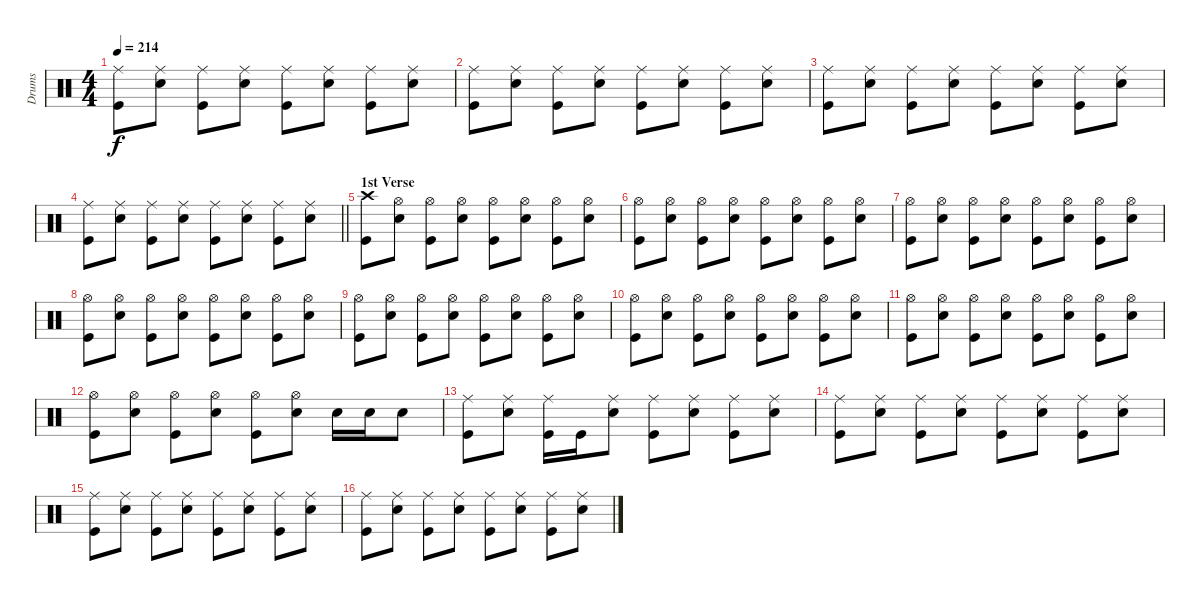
\track ("Drums" "Drums") {instrument percussion}
\staff {score}
\articulation defaults
\ts (4 4)
\tempo 214
\clef neutral
\ks c
("Ride (middle)" "Kick (hit)").8{dy f} ("Ride (middle)" "Snare (hit) 2").8 ("Ride (middle)" "Kick (hit)").8 ("Ride (middle)" "Snare (hit) 2").8 ("Ride (middle)" "Kick (hit)").8 ("Ride (middle)" "Snare (hit) 2").8 ("Ride (middle)" "Kick (hit)").8 ("Ride (middle)" "Snare (hit) 2").8 |
("Ride (middle)" "Kick (hit)").8 ("Ride (middle)" "Snare (hit) 2").8 ("Ride (middle)" "Kick (hit)").8 ("Ride (middle)" "Snare (hit) 2").8 ("Ride (middle)" "Kick (hit)").8 ("Ride (middle)" "Snare (hit) 2").8 ("Ride (middle)" "Kick (hit)").8 ("Ride (middle)" "Snare (hit) 2").8 |
("Ride (middle)" "Kick (hit)").8 ("Ride (middle)" "Snare (hit) 2").8 ("Ride (middle)" "Kick (hit)").8 ("Ride (middle)" "Snare (hit) 2").8 ("Ride (middle)" "Kick (hit)").8 ("Ride (middle)" "Snare (hit) 2").8 ("Ride (middle)" "Kick (hit)").8 ("Ride (middle)" "Snare (hit) 2").8 |
\barLineRight lightlight
("Ride (middle)" "Kick (hit)").8 ("Ride (middle)" "Snare (hit) 2").8 ("Ride (middle)" "Kick (hit)").8 ("Ride (middle)" "Snare (hit) 2").8 ("Ride (middle)" "Kick (hit)").8 ("Ride (middle)" "Snare (hit) 2").8 ("Ride (middle)" "Kick (hit)").8 ("Ride (middle)" "Snare (hit) 2").8 |
\section ("" "1st Verse")
("Crash high (hit)" "Kick (hit)").8 ("Hi-Hat (open)" "Snare (hit) 2").8 ("Hi-Hat (open)" "Kick (hit)").8 ("Hi-Hat (open)" "Snare (hit) 2").8 ("Hi-Hat (open)" "Kick (hit)").8 ("Hi-Hat (open)" "Snare (hit) 2").8 ("Hi-Hat (open)" "Kick (hit)").8 ("Hi-Hat (open)" "Snare (hit) 2").8 |
("Hi-Hat (open)" "Kick (hit)").8 ("Hi-Hat (open)" "Snare (hit) 2").8 ("Hi-Hat (open)" "Kick (hit)").8 ("Hi-Hat (open)" "Snare (hit) 2").8 ("Hi-Hat (open)" "Kick (hit)").8 ("Hi-Hat (open)" "Snare (hit) 2").8 ("Hi-Hat (open)" "Kick (hit)").8 ("Hi-Hat (open)" "Snare (hit) 2").8 |
("Hi-Hat (open)" "Kick (hit)").8 ("Hi-Hat (open)" "Snare (hit) 2").8 ("Hi-Hat (open)" "Kick (hit)").8 ("Hi-Hat (open)" "Snare (hit) 2").8 ("Hi-Hat (open)" "Kick (hit)").8 ("Hi-Hat (open)" "Snare (hit) 2").8 ("Hi-Hat (open)" "Kick (hit)").8 ("Hi-Hat (open)" "Snare (hit) 2").8 |
("Hi-Hat (open)" "Kick (hit)").8 ("Hi-Hat (open)" "Snare (hit) 2").8 ("Hi-Hat (open)" "Kick (hit)").8 ("Hi-Hat (open)" "Snare (hit) 2").8 ("Hi-Hat (open)" "Kick (hit)").8 ("Hi-Hat (open)" "Snare (hit) 2").8 ("Hi-Hat (open)" "Kick (hit)").8 ("Hi-Hat (open)" "Snare (hit) 2").8 |
("Hi-Hat (open)" "Kick (hit)").8 ("Hi-Hat (open)" "Snare (hit) 2").8 ("Hi-Hat (open)" "Kick (hit)").8 ("Hi-Hat (open)" "Snare (hit) 2").8 ("Hi-Hat (open)" "Kick (hit)").8 ("Hi-Hat (open)" "Snare (hit) 2").8 ("Hi-Hat (open)" "Kick (hit)").8 ("Hi-Hat (open)" "Snare (hit) 2").8 |
("Hi-Hat (open)" "Kick (hit)").8 ("Hi-Hat (open)" "Snare (hit) 2").8 ("Hi-Hat (open)" "Kick (hit)").8 ("Hi-Hat (open)" "Snare (hit) 2").8 ("Hi-Hat (open)" "Kick (hit)").8 ("Hi-Hat (open)" "Snare (hit) 2").8 ("Hi-Hat (open)" "Kick (hit)").8 ("Hi-Hat (open)" "Snare (hit) 2").8 |
("Hi-Hat (open)" "Kick (hit)").8 ("Hi-Hat (open)" "Snare (hit) 2").8 ("Hi-Hat (open)" "Kick (hit)").8 ("Hi-Hat (open)" "Snare (hit) 2").8 ("Hi-Hat (open)" "Kick (hit)").8 ("Hi-Hat (open)" "Snare (hit) 2").8 ("Hi-Hat (open)" "Kick (hit)").8 ("Hi-Hat (open)" "Snare (hit) 2").8 |
("Hi-Hat (open)" "Kick (hit)").8 ("Hi-Hat (open)" "Snare (hit) 2").8 ("Hi-Hat (open)" "Kick (hit)").8 ("Hi-Hat (open)" "Snare (hit) 2").8 ("Hi-Hat (open)" "Kick (hit)").8 ("Hi-Hat (open)" "Snare (hit) 2").8 "Snare (hit) 2".16 "Snare (hit) 2".16 "Snare (hit) 2".8 |
("Ride (middle)" "Kick (hit)").8 ("Ride (middle)" "Snare (hit) 2").8 ("Ride (middle)" "Kick (hit)").16 "Kick (hit)".16 ("Ride (middle)" "Snare (hit) 2").8 ("Ride (middle)" "Kick (hit)").8 ("Ride (middle)" "Snare (hit) 2").8 ("Ride (middle)" "Kick (hit)").8 ("Ride (middle)" "Snare (hit) 2").8 |
("Ride (middle)" "Kick (hit)").8 ("Ride (middle)" "Snare (hit) 2").8 ("Ride (middle)" "Kick (hit)").8 ("Ride (middle)" "Snare (hit) 2").8 ("Ride (middle)" "Kick (hit)").8 ("Ride (middle)" "Snare (hit) 2").8 ("Ride (middle)" "Kick (hit)").8 ("Ride (middle)" "Snare (hit) 2").8 |
("Ride (middle)" "Kick (hit)").8 ("Ride (middle)" "Snare (hit) 2").8 ("Ride (middle)" "Kick (hit)").8 ("Ride (middle)" "Snare (hit) 2").8 ("Ride (middle)" "Kick (hit)").8 ("Ride (middle)" "Snare (hit) 2").8 ("Ride (middle)" "Kick (hit)").8 ("Ride (middle)" "Snare (hit) 2").8 |
("Ride (middle)" "Kick (hit)").8 ("Ride (middle)" "Snare (hit) 2").8 ("Ride (middle)" "Kick (hit)").8 ("Ride (middle)" "Snare (hit) 2").8 ("Ride (middle)" "Kick (hit)").8 ("Ride (middle)" "Snare (hit) 2").8 ("Ride (middle)" "Kick (hit)").8 ("Ride (middle)" "Snare (hit) 2").8
